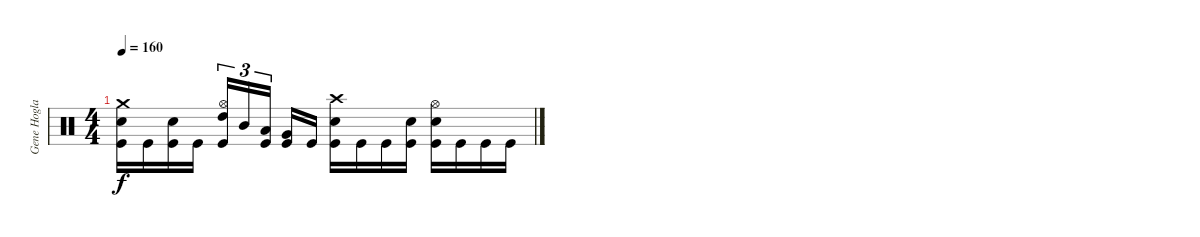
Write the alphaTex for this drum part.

\track ("Gene Hoglan" "Gene Hogla") {instrument percussion}
\staff {score}
\articulation defaults
\ts (4 4)
\tempo 160
\clef neutral
\ks c
("Crash medium (hit)" "Electric Snare (hit)" "Kick (hit)").16{dy f} "Kick (hit)".16 ("Electric Snare (hit)" "Kick (hit)").16 "Kick (hit)".16 ("Hi-Hat (open)" "High Tom (hit)" "Kick (hit)").16{tu (3 2)} "Mid Tom (hit)".16{tu (3 2)} ("Low Tom (hit)" "Kick (hit)").16{tu (3 2) beam splitsecondary} ("Very Low Tom (hit)" "Kick (hit)").16 "Kick (hit)".16 ("Crash high (hit)" "Electric Snare (hit)" "Kick (hit)").16 "Kick (hit)".16 "Kick (hit)".16 ("Electric Snare (hit)" "Kick (hit)").16 ("Hi-Hat (open)" "Electric Snare (hit)" "Kick (hit)").16 "Kick (hit)".16 "Kick (hit)".16 "Kick (hit)".16
